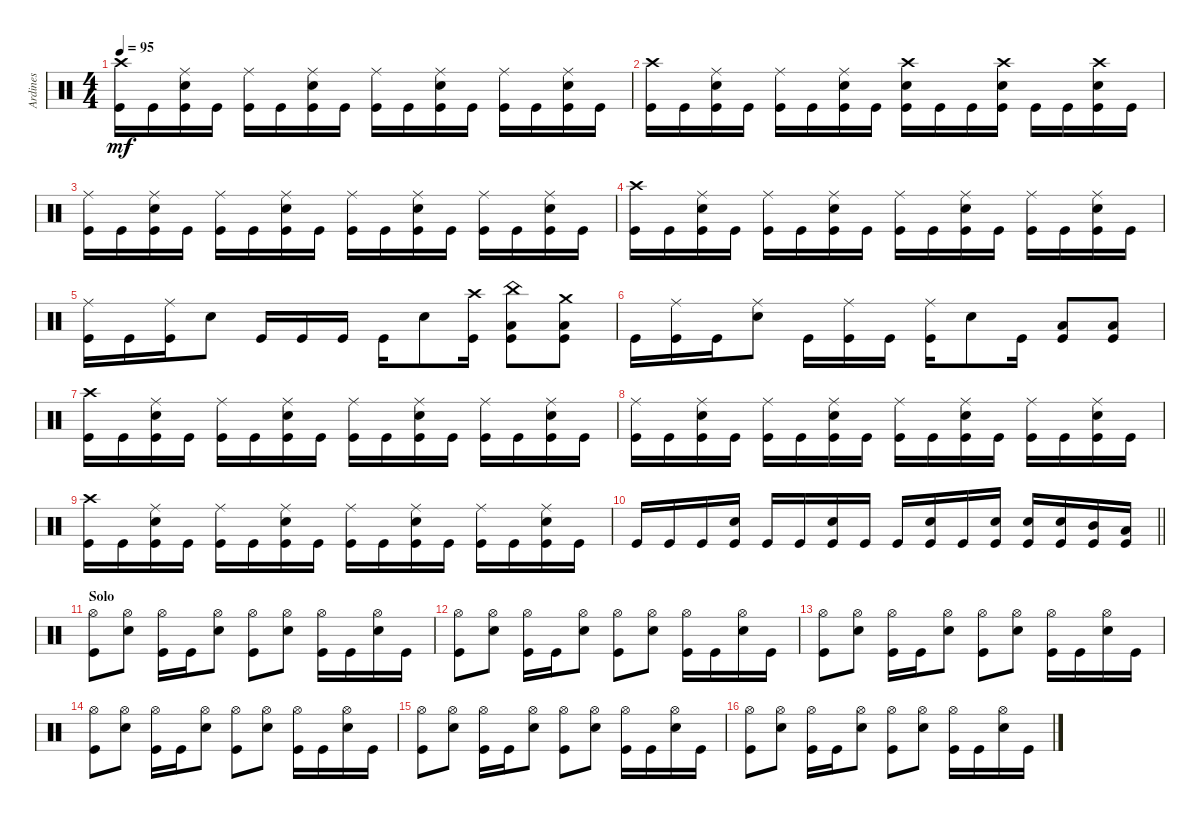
\track ("Ardines" "Ardines") {instrument percussion}
\staff {score}
\articulation defaults
\ts (4 4)
\tempo 95
\clef neutral
\ks c
("Crash high (hit)" "Kick (hit)").16{dy mf} "Kick (hit)".16 ("Ride (middle)" "Snare (hit) 2" "Kick (hit)").16 "Kick (hit)".16 ("Ride (middle)" "Kick (hit)").16 "Kick (hit)".16 ("Ride (middle)" "Snare (hit) 2" "Kick (hit)").16 "Kick (hit)".16 ("Ride (middle)" "Kick (hit)").16 "Kick (hit)".16 ("Ride (middle)" "Snare (hit) 2" "Kick (hit)").16 "Kick (hit)".16 ("Ride (middle)" "Kick (hit)").16 "Kick (hit)".16 ("Ride (middle)" "Snare (hit) 2" "Kick (hit)").16 "Kick (hit)".16 |
("Crash high (hit)" "Kick (hit)").16 "Kick (hit)".16 ("Ride (middle)" "Snare (hit) 2" "Kick (hit)").16 "Kick (hit)".16 ("Ride (middle)" "Kick (hit)").16 "Kick (hit)".16 ("Ride (middle)" "Snare (hit) 2" "Kick (hit)").16 "Kick (hit)".16 ("Crash high (hit)" "Snare (hit) 2" "Kick (hit)").16 "Kick (hit)".16 "Kick (hit)".16 ("Crash high (hit)" "Snare (hit) 2" "Kick (hit)").16 "Kick (hit)".16 "Kick (hit)".16 ("Crash high (hit)" "Snare (hit) 2" "Kick (hit)").16 "Kick (hit)".16 |
("Ride (middle)" "Kick (hit)").16 "Kick (hit)".16 ("Ride (middle)" "Snare (hit) 2" "Kick (hit)").16 "Kick (hit)".16 ("Ride (middle)" "Kick (hit)").16 "Kick (hit)".16 ("Ride (middle)" "Snare (hit) 2" "Kick (hit)").16 "Kick (hit)".16 ("Ride (middle)" "Kick (hit)").16 "Kick (hit)".16 ("Ride (middle)" "Snare (hit) 2" "Kick (hit)").16 "Kick (hit)".16 ("Ride (middle)" "Kick (hit)").16 "Kick (hit)".16 ("Ride (middle)" "Snare (hit) 2" "Kick (hit)").16 "Kick (hit)".16 |
("Crash high (hit)" "Kick (hit)").16 "Kick (hit)".16 ("Ride (middle)" "Snare (hit) 2" "Kick (hit)").16 "Kick (hit)".16 ("Ride (middle)" "Kick (hit)").16 "Kick (hit)".16 ("Ride (middle)" "Snare (hit) 2" "Kick (hit)").16 "Kick (hit)".16 ("Ride (middle)" "Kick (hit)").16 "Kick (hit)".16 ("Ride (middle)" "Snare (hit) 2" "Kick (hit)").16 "Kick (hit)".16 ("Ride (middle)" "Kick (hit)").16 "Kick (hit)".16 ("Ride (middle)" "Snare (hit) 2" "Kick (hit)").16 "Kick (hit)".16 |
("Ride (middle)" "Kick (hit)").16 "Kick (hit)".16 ("Ride (middle)" "Kick (hit)").16 "Snare (hit) 2".8 "Kick (hit)".16 "Kick (hit)".16 "Kick (hit)".16 "Kick (hit)".16 "Snare (hit) 2".8 ("Crash high (hit)" "Kick (hit)").16 ("China (hit)" "Low Tom (hit)" "Kick (hit)").8 ("Crash medium (hit)" "Low Tom (hit)" "Kick (hit)").8 |
"Kick (hit)".16 ("Ride (middle)" "Kick (hit)").16 "Kick (hit)".16 ("Ride (middle)" "Snare (hit) 2").8 "Kick (hit)".16 ("Ride (middle)" "Kick (hit)").16 "Kick (hit)".16 ("Ride (middle)" "Kick (hit)").16 "Snare (hit) 2".8 "Kick (hit)".16 ("Low Tom (hit)" "Kick (hit)").8 ("Low Tom (hit)" "Kick (hit)").8 |
("Crash high (hit)" "Kick (hit)").16 "Kick (hit)".16 ("Ride (middle)" "Snare (hit) 2" "Kick (hit)").16 "Kick (hit)".16 ("Ride (middle)" "Kick (hit)").16 "Kick (hit)".16 ("Ride (middle)" "Snare (hit) 2" "Kick (hit)").16 "Kick (hit)".16 ("Ride (middle)" "Kick (hit)").16 "Kick (hit)".16 ("Ride (middle)" "Snare (hit) 2" "Kick (hit)").16 "Kick (hit)".16 ("Ride (middle)" "Kick (hit)").16 "Kick (hit)".16 ("Ride (middle)" "Snare (hit) 2" "Kick (hit)").16 "Kick (hit)".16 |
("Ride (middle)" "Kick (hit)").16 "Kick (hit)".16 ("Ride (middle)" "Snare (hit) 2" "Kick (hit)").16 "Kick (hit)".16 ("Ride (middle)" "Kick (hit)").16 "Kick (hit)".16 ("Ride (middle)" "Snare (hit) 2" "Kick (hit)").16 "Kick (hit)".16 ("Ride (middle)" "Kick (hit)").16 "Kick (hit)".16 ("Ride (middle)" "Snare (hit) 2" "Kick (hit)").16 "Kick (hit)".16 ("Ride (middle)" "Kick (hit)").16 "Kick (hit)".16 ("Ride (middle)" "Snare (hit) 2" "Kick (hit)").16 "Kick (hit)".16 |
("Crash high (hit)" "Kick (hit)").16 "Kick (hit)".16 ("Ride (middle)" "Snare (hit) 2" "Kick (hit)").16 "Kick (hit)".16 ("Ride (middle)" "Kick (hit)").16 "Kick (hit)".16 ("Ride (middle)" "Snare (hit) 2" "Kick (hit)").16 "Kick (hit)".16 ("Ride (middle)" "Kick (hit)").16 "Kick (hit)".16 ("Ride (middle)" "Snare (hit) 2" "Kick (hit)").16 "Kick (hit)".16 ("Ride (middle)" "Kick (hit)").16 "Kick (hit)".16 ("Ride (middle)" "Snare (hit) 2" "Kick (hit)").16 "Kick (hit)".16 |
\barLineRight lightlight "Kick (hit)".16 "Kick (hit)".16 "Kick (hit)".16
("Snare (hit) 2" "Kick (hit)").16 "Kick (hit)".16 "Kick (hit)".16 ("Snare (hit) 2" "Kick (hit)").16 "Kick (hit)".16 "Kick (hit)".16 ("Snare (hit) 2" "Kick (hit)").16 "Kick (hit)".16 ("Snare (hit) 2" "Kick (hit)").16 ("Snare (hit) 2" "Kick (hit)").16 ("Snare (hit) 2" "Kick (hit)").16 ("Mid Tom (hit)" "Kick (hit)").16 ("Low Tom (hit)" "Kick (hit)").16 |
\section ("" "Solo")
("Hi-Hat (open)" "Kick (hit)").8 ("Hi-Hat (open)" "Snare (hit) 2").8 ("Hi-Hat (open)" "Kick (hit)").16 "Kick (hit)".16 ("Hi-Hat (open)" "Snare (hit) 2").8 ("Hi-Hat (open)" "Kick (hit)").8 ("Hi-Hat (open)" "Snare (hit) 2").8 ("Hi-Hat (open)" "Kick (hit)").16 "Kick (hit)".16 ("Hi-Hat (open)" "Snare (hit) 2").16 "Kick (hit)".16 |
("Hi-Hat (open)" "Kick (hit)").8 ("Hi-Hat (open)" "Snare (hit) 2").8 ("Hi-Hat (open)" "Kick (hit)").16 "Kick (hit)".16 ("Hi-Hat (open)" "Snare (hit) 2").8 ("Hi-Hat (open)" "Kick (hit)").8 ("Hi-Hat (open)" "Snare (hit) 2").8 ("Hi-Hat (open)" "Kick (hit)").16 "Kick (hit)".16 ("Hi-Hat (open)" "Snare (hit) 2").16 "Kick (hit)".16 |
("Hi-Hat (open)" "Kick (hit)").8 ("Hi-Hat (open)" "Snare (hit) 2").8 ("Hi-Hat (open)" "Kick (hit)").16 "Kick (hit)".16 ("Hi-Hat (open)" "Snare (hit) 2").8 ("Hi-Hat (open)" "Kick (hit)").8 ("Hi-Hat (open)" "Snare (hit) 2").8 ("Hi-Hat (open)" "Kick (hit)").16 "Kick (hit)".16 ("Hi-Hat (open)" "Snare (hit) 2").16 "Kick (hit)".16 |
("Hi-Hat (open)" "Kick (hit)").8 ("Hi-Hat (open)" "Snare (hit) 2").8 ("Hi-Hat (open)" "Kick (hit)").16 "Kick (hit)".16 ("Hi-Hat (open)" "Snare (hit) 2").8 ("Hi-Hat (open)" "Kick (hit)").8 ("Hi-Hat (open)" "Snare (hit) 2").8 ("Hi-Hat (open)" "Kick (hit)").16 "Kick (hit)".16 ("Hi-Hat (open)" "Snare (hit) 2").16 "Kick (hit)".16 |
("Hi-Hat (open)" "Kick (hit)").8 ("Hi-Hat (open)" "Snare (hit) 2").8 ("Hi-Hat (open)" "Kick (hit)").16 "Kick (hit)".16 ("Hi-Hat (open)" "Snare (hit) 2").8 ("Hi-Hat (open)" "Kick (hit)").8 ("Hi-Hat (open)" "Snare (hit) 2").8 ("Hi-Hat (open)" "Kick (hit)").16 "Kick (hit)".16 ("Hi-Hat (open)" "Snare (hit) 2").16 "Kick (hit)".16 |
("Hi-Hat (open)" "Kick (hit)").8 ("Hi-Hat (open)" "Snare (hit) 2").8 ("Hi-Hat (open)" "Kick (hit)").16 "Kick (hit)".16 ("Hi-Hat (open)" "Snare (hit) 2").8 ("Hi-Hat (open)" "Kick (hit)").8 ("Hi-Hat (open)" "Snare (hit) 2").8 ("Hi-Hat (open)" "Kick (hit)").16 "Kick (hit)".16 ("Hi-Hat (open)" "Snare (hit) 2").16 "Kick (hit)".16
